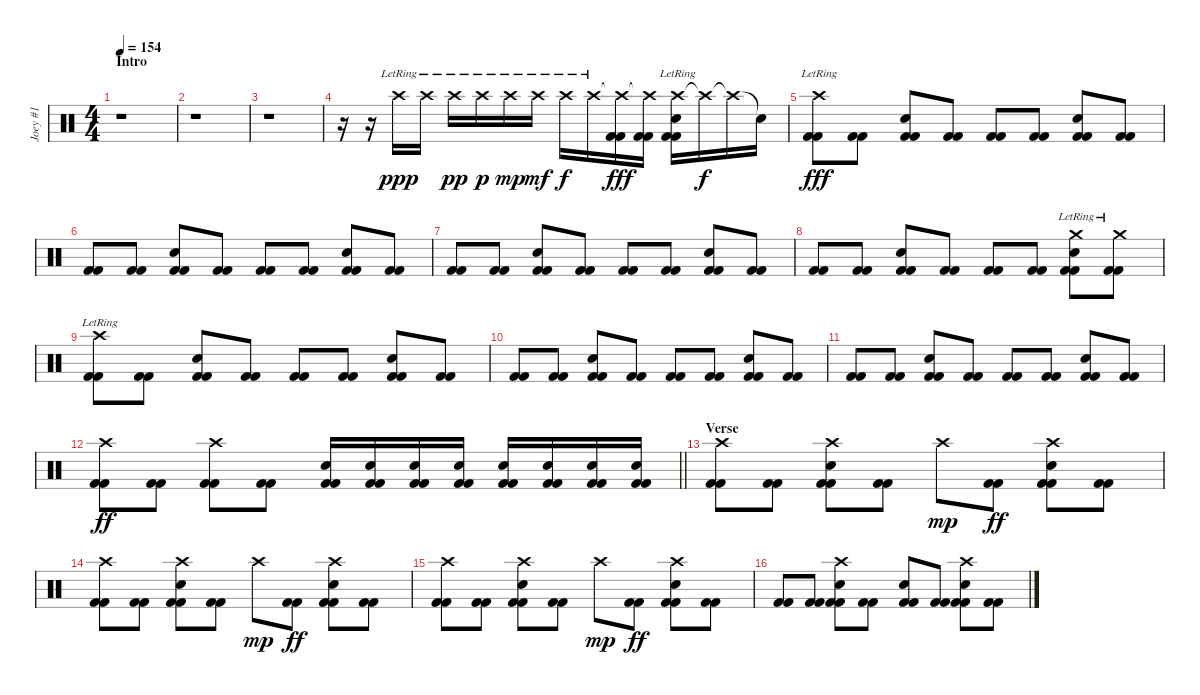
\track ("Joey #1" "Joey #1") {instrument percussion}
\staff {score}
\articulation defaults
\ts (4 4)
\section ("" "Intro")
\tempo 154
\clef neutral
\ks c
r.1{dy ppp} |
r.1 |
r.1 |
r.16 r.16 "Crash high (hit)"{lr}.16 "Crash high (hit)"{lr}.16 "Crash high (hit)"{lr}.16{dy pp} "Crash high (hit)"{lr}.16{dy p} "Crash high (hit)"{lr}.16{dy mp} "Crash high (hit)"{lr}.16{dy mf} "Crash high (hit)"{lr}.16{dy f} "Crash high (hit)"{lr}.16 ("Crash high (hit)"{t} "Kick (hit) 2" "Kick (hit) 2").16{dy fff} ("Crash high (hit)"{t} "Kick (hit) 2" "Kick (hit) 2").16 ("Crash high (hit)"{lr} "Snare (hit) 2" "Kick (hit) 2" "Kick (hit) 2").16 "Crash high (hit)"{t}.16{dy f} "Crash high (hit)"{t}.16 "Snare (hit)"{t}.16 |
("Crash high (hit)"{lr} "Kick (hit) 2" "Kick (hit) 2").8{dy fff} ("Kick (hit) 2" "Kick (hit) 2").8 ("Snare (hit) 2" "Kick (hit) 2" "Kick (hit) 2").8 ("Kick (hit) 2" "Kick (hit) 2").8 ("Kick (hit) 2" "Kick (hit) 2").8 ("Kick (hit) 2" "Kick (hit) 2").8 ("Snare (hit) 2" "Kick (hit) 2" "Kick (hit) 2").8 ("Kick (hit) 2" "Kick (hit) 2").8 |
("Kick (hit) 2" "Kick (hit) 2").8 ("Kick (hit) 2" "Kick (hit) 2").8 ("Snare (hit) 2" "Kick (hit) 2" "Kick (hit) 2").8 ("Kick (hit) 2" "Kick (hit) 2").8 ("Kick (hit) 2" "Kick (hit) 2").8 ("Kick (hit) 2" "Kick (hit) 2").8 ("Snare (hit) 2" "Kick (hit) 2" "Kick (hit) 2").8 ("Kick (hit) 2" "Kick (hit) 2").8 |
("Kick (hit) 2" "Kick (hit) 2").8 ("Kick (hit) 2" "Kick (hit) 2").8 ("Snare (hit) 2" "Kick (hit) 2" "Kick (hit) 2").8 ("Kick (hit) 2" "Kick (hit) 2").8 ("Kick (hit) 2" "Kick (hit) 2").8 ("Kick (hit) 2" "Kick (hit) 2").8 ("Snare (hit) 2" "Kick (hit) 2" "Kick (hit) 2").8 ("Kick (hit) 2" "Kick (hit) 2").8 |
("Kick (hit) 2" "Kick (hit) 2").8 ("Kick (hit) 2" "Kick (hit) 2").8 ("Snare (hit) 2" "Kick (hit) 2" "Kick (hit) 2").8 ("Kick (hit) 2" "Kick (hit) 2").8 ("Kick (hit) 2" "Kick (hit) 2").8 ("Kick (hit) 2" "Kick (hit) 2").8 ("Crash medium (hit)"{lr} "Snare (hit) 2" "Kick (hit) 2" "Kick (hit) 2").8 ("Crash medium (hit)"{lr} "Kick (hit) 2" "Kick (hit) 2").8 |
("Crash high (hit)"{lr} "Kick (hit) 2" "Kick (hit) 2").8 ("Kick (hit) 2" "Kick (hit) 2").8 ("Snare (hit) 2" "Kick (hit) 2" "Kick (hit) 2").8 ("Kick (hit) 2" "Kick (hit) 2").8 ("Kick (hit) 2" "Kick (hit) 2").8 ("Kick (hit) 2" "Kick (hit) 2").8 ("Snare (hit) 2" "Kick (hit) 2" "Kick (hit) 2").8 ("Kick (hit) 2" "Kick (hit) 2").8 |
("Kick (hit) 2" "Kick (hit) 2").8 ("Kick (hit) 2" "Kick (hit) 2").8 ("Snare (hit) 2" "Kick (hit) 2" "Kick (hit) 2").8 ("Kick (hit) 2" "Kick (hit) 2").8 ("Kick (hit) 2" "Kick (hit) 2").8 ("Kick (hit) 2" "Kick (hit) 2").8 ("Snare (hit) 2" "Kick (hit) 2" "Kick (hit) 2").8 ("Kick (hit) 2" "Kick (hit) 2").8 |
("Kick (hit) 2" "Kick (hit) 2").8 ("Kick (hit) 2" "Kick (hit) 2").8 ("Snare (hit) 2" "Kick (hit) 2" "Kick (hit) 2").8 ("Kick (hit) 2" "Kick (hit) 2").8 ("Kick (hit) 2" "Kick (hit) 2").8 ("Kick (hit) 2" "Kick (hit) 2").8 ("Snare (hit) 2" "Kick (hit) 2" "Kick (hit) 2").8 ("Kick (hit) 2" "Kick (hit) 2").8 |
\barLineRight lightlight
("Crash high (hit)" "Kick (hit) 2" "Kick (hit) 2").8{dy ff} ("Kick (hit) 2" "Kick (hit) 2").8 ("Crash high (hit)" "Kick (hit) 2" "Kick (hit) 2").8 ("Kick (hit) 2" "Kick (hit) 2").8 ("Snare (hit) 2" "Kick (hit) 2" "Kick (hit) 2").16 ("Snare (hit) 2" "Kick (hit) 2" "Kick (hit) 2").16 ("Snare (hit) 2" "Kick (hit) 2" "Kick (hit) 2").16 ("Snare (hit) 2" "Kick (hit) 2" "Kick (hit) 2").16 ("Snare (hit) 2" "Kick (hit) 2" "Kick (hit) 2").16 ("Snare (hit) 2" "Kick (hit) 2" "Kick (hit) 2").16 ("Snare (hit) 2" "Kick (hit) 2" "Kick (hit) 2").16 ("Snare (hit) 2" "Kick (hit) 2" "Kick (hit) 2").16 |
\section ("" "Verse")
("Crash high (hit)" "Kick (hit) 2" "Kick (hit) 2").8 ("Kick (hit) 2" "Kick (hit) 2").8 ("Crash high (hit)" "Snare (hit) 2" "Kick (hit) 2" "Kick (hit) 2").8 ("Kick (hit) 2" "Kick (hit) 2").8 "Crash high (hit)".8{dy mp} ("Kick (hit) 2" "Kick (hit) 2").8{dy ff} ("Crash high (hit)" "Snare (hit) 2" "Kick (hit) 2" "Kick (hit) 2").8 ("Kick (hit) 2" "Kick (hit) 2").8 |
("Crash high (hit)" "Kick (hit) 2" "Kick (hit) 2").8 ("Kick (hit) 2" "Kick (hit) 2").8 ("Crash high (hit)" "Snare (hit) 2" "Kick (hit) 2" "Kick (hit) 2").8 ("Kick (hit) 2" "Kick (hit) 2").8 "Crash high (hit)".8{dy mp} ("Kick (hit) 2" "Kick (hit) 2").8{dy ff} ("Crash high (hit)" "Snare (hit) 2" "Kick (hit) 2" "Kick (hit) 2").8 ("Kick (hit) 2" "Kick (hit) 2").8 |
("Crash high (hit)" "Kick (hit) 2" "Kick (hit) 2").8 ("Kick (hit) 2" "Kick (hit) 2").8 ("Crash high (hit)" "Snare (hit) 2" "Kick (hit) 2" "Kick (hit) 2").8 ("Kick (hit) 2" "Kick (hit) 2").8 "Crash high (hit)".8{dy mp} ("Kick (hit) 2" "Kick (hit) 2").8{dy ff} ("Crash high (hit)" "Snare (hit) 2" "Kick (hit) 2" "Kick (hit) 2").8 ("Kick (hit) 2" "Kick (hit) 2").8 |
("Kick (hit) 2" "Kick (hit) 2").8 ("Kick (hit) 2" "Kick (hit) 2").8 ("Crash high (hit)" "Snare (hit) 2" "Kick (hit) 2" "Kick (hit) 2").8 ("Kick (hit) 2" "Kick (hit) 2").8 ("Snare (hit) 2" "Kick (hit) 2" "Kick (hit) 2").8 ("Kick (hit) 2" "Kick (hit) 2").8 ("Crash high (hit)" "Snare (hit) 2" "Kick (hit) 2" "Kick (hit) 2").8 ("Kick (hit) 2" "Kick (hit) 2").8
